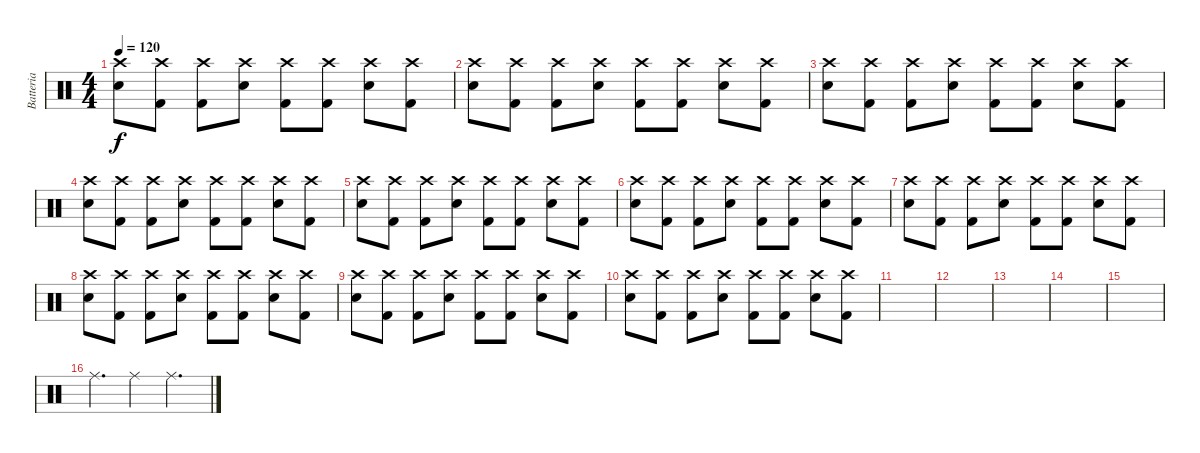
\track ("Batteria" "Batteria") {instrument percussion}
\staff {score}
\articulation defaults
\ts (4 4)
\tempo 120
\clef neutral
\ks c
("Snare (hit) 2" "Crash high (hit)").8{dy f} ("Kick (hit) 2" "Crash high (hit)").8 ("Crash high (hit)" "Kick (hit) 2").8 ("Snare (hit) 2" "Crash high (hit)").8 ("Kick (hit) 2" "Crash high (hit)").8 ("Kick (hit) 2" "Crash high (hit)").8 ("Snare (hit) 2" "Crash high (hit)").8 ("Crash high (hit)" "Kick (hit) 2").8 |
("Snare (hit) 2" "Crash high (hit)").8 ("Kick (hit) 2" "Crash high (hit)").8 ("Crash high (hit)" "Kick (hit) 2").8 ("Snare (hit) 2" "Crash high (hit)").8 ("Kick (hit) 2" "Crash high (hit)").8 ("Kick (hit) 2" "Crash high (hit)").8 ("Snare (hit) 2" "Crash high (hit)").8 ("Crash high (hit)" "Kick (hit) 2").8 |
("Snare (hit) 2" "Crash high (hit)").8 ("Kick (hit) 2" "Crash high (hit)").8 ("Crash high (hit)" "Kick (hit) 2").8 ("Snare (hit) 2" "Crash high (hit)").8 ("Kick (hit) 2" "Crash high (hit)").8 ("Kick (hit) 2" "Crash high (hit)").8 ("Snare (hit) 2" "Crash high (hit)").8 ("Crash high (hit)" "Kick (hit) 2").8 |
("Snare (hit) 2" "Crash high (hit)").8 ("Kick (hit) 2" "Crash high (hit)").8 ("Crash high (hit)" "Kick (hit) 2").8 ("Snare (hit) 2" "Crash high (hit)").8 ("Kick (hit) 2" "Crash high (hit)").8 ("Kick (hit) 2" "Crash high (hit)").8 ("Snare (hit) 2" "Crash high (hit)").8 ("Crash high (hit)" "Kick (hit) 2").8 |
("Snare (hit) 2" "Crash high (hit)").8 ("Kick (hit) 2" "Crash high (hit)").8 ("Crash high (hit)" "Kick (hit) 2").8 ("Snare (hit) 2" "Crash high (hit)").8 ("Kick (hit) 2" "Crash high (hit)").8 ("Kick (hit) 2" "Crash high (hit)").8 ("Snare (hit) 2" "Crash high (hit)").8 ("Crash high (hit)" "Kick (hit) 2").8 |
("Snare (hit) 2" "Crash high (hit)").8 ("Kick (hit) 2" "Crash high (hit)").8 ("Crash high (hit)" "Kick (hit) 2").8 ("Snare (hit) 2" "Crash high (hit)").8 ("Kick (hit) 2" "Crash high (hit)").8 ("Kick (hit) 2" "Crash high (hit)").8 ("Snare (hit) 2" "Crash high (hit)").8 ("Crash high (hit)" "Kick (hit) 2").8 |
("Snare (hit) 2" "Crash high (hit)").8 ("Kick (hit) 2" "Crash high (hit)").8 ("Crash high (hit)" "Kick (hit) 2").8 ("Snare (hit) 2" "Crash high (hit)").8 ("Kick (hit) 2" "Crash high (hit)").8 ("Kick (hit) 2" "Crash high (hit)").8 ("Snare (hit) 2" "Crash high (hit)").8 ("Crash high (hit)" "Kick (hit) 2").8 |
("Snare (hit) 2" "Crash high (hit)").8 ("Kick (hit) 2" "Crash high (hit)").8 ("Crash high (hit)" "Kick (hit) 2").8 ("Snare (hit) 2" "Crash high (hit)").8 ("Kick (hit) 2" "Crash high (hit)").8 ("Kick (hit) 2" "Crash high (hit)").8 ("Snare (hit) 2" "Crash high (hit)").8 ("Crash high (hit)" "Kick (hit) 2").8 |
("Snare (hit) 2" "Crash high (hit)").8 ("Kick (hit) 2" "Crash high (hit)").8 ("Crash high (hit)" "Kick (hit) 2").8 ("Snare (hit) 2" "Crash high (hit)").8 ("Kick (hit) 2" "Crash high (hit)").8 ("Kick (hit) 2" "Crash high (hit)").8 ("Snare (hit) 2" "Crash high (hit)").8 ("Crash high (hit)" "Kick (hit) 2").8 |
("Snare (hit) 2" "Crash high (hit)").8 ("Kick (hit) 2" "Crash high (hit)").8 ("Crash high (hit)" "Kick (hit) 2").8 ("Snare (hit) 2" "Crash high (hit)").8 ("Kick (hit) 2" "Crash high (hit)").8 ("Kick (hit) 2" "Crash high (hit)").8 ("Snare (hit) 2" "Crash high (hit)").8 ("Crash high (hit)" "Kick (hit) 2").8 |
|
|
|
|
|
"Ride (middle)".4{d volume 16} "Ride (middle)".4 "Ride (middle)".4{d}
